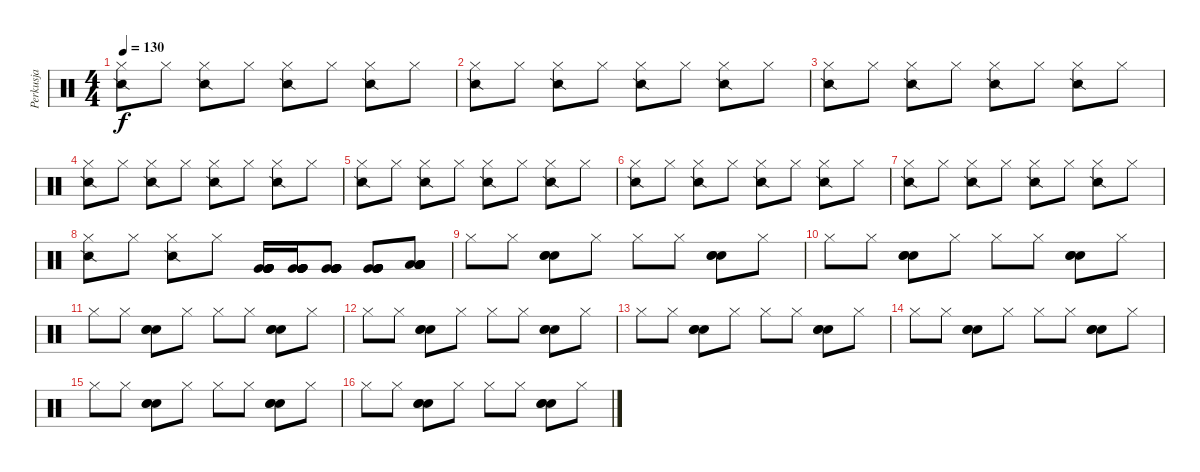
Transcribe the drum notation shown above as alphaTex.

\track ("Perkusja" "Perkusja") {instrument percussion}
\staff {score}
\articulation defaults
\ts (4 4)
\tempo 130
\clef neutral
\ks c
("Hi-Hat (closed)" "Snare (side stick) 2").8{dy f} "Hi-Hat (closed)".8 ("Hi-Hat (closed)" "Snare (side stick) 2").8 "Hi-Hat (closed)".8 ("Hi-Hat (closed)" "Snare (side stick) 2").8 "Hi-Hat (closed)".8 ("Hi-Hat (closed)" "Snare (side stick) 2").8 "Hi-Hat (closed)".8 |
("Hi-Hat (closed)" "Snare (side stick) 2").8 "Hi-Hat (closed)".8 ("Hi-Hat (closed)" "Snare (side stick) 2").8 "Hi-Hat (closed)".8 ("Hi-Hat (closed)" "Snare (side stick) 2").8 "Hi-Hat (closed)".8 ("Hi-Hat (closed)" "Snare (side stick) 2").8 "Hi-Hat (closed)".8 |
("Hi-Hat (closed)" "Snare (side stick) 2").8 "Hi-Hat (closed)".8 ("Hi-Hat (closed)" "Snare (side stick) 2").8 "Hi-Hat (closed)".8 ("Hi-Hat (closed)" "Snare (side stick) 2").8 "Hi-Hat (closed)".8 ("Hi-Hat (closed)" "Snare (side stick) 2").8 "Hi-Hat (closed)".8 |
("Hi-Hat (closed)" "Snare (side stick) 2").8 "Hi-Hat (closed)".8 ("Hi-Hat (closed)" "Snare (side stick) 2").8 "Hi-Hat (closed)".8 ("Hi-Hat (closed)" "Snare (side stick) 2").8 "Hi-Hat (closed)".8 ("Hi-Hat (closed)" "Snare (side stick) 2").8 "Hi-Hat (closed)".8 |
("Hi-Hat (closed)" "Snare (side stick) 2").8 "Hi-Hat (closed)".8 ("Hi-Hat (closed)" "Snare (side stick) 2").8 "Hi-Hat (closed)".8 ("Hi-Hat (closed)" "Snare (side stick) 2").8 "Hi-Hat (closed)".8 ("Hi-Hat (closed)" "Snare (side stick) 2").8 "Hi-Hat (closed)".8 |
("Hi-Hat (closed)" "Snare (side stick) 2").8 "Hi-Hat (closed)".8 ("Hi-Hat (closed)" "Snare (side stick) 2").8 "Hi-Hat (closed)".8 ("Hi-Hat (closed)" "Snare (side stick) 2").8 "Hi-Hat (closed)".8 ("Hi-Hat (closed)" "Snare (side stick) 2").8 "Hi-Hat (closed)".8 |
("Hi-Hat (closed)" "Snare (side stick) 2").8 "Hi-Hat (closed)".8 ("Hi-Hat (closed)" "Snare (side stick) 2").8 "Hi-Hat (closed)".8 ("Hi-Hat (closed)" "Snare (side stick) 2").8 "Hi-Hat (closed)".8 ("Hi-Hat (closed)" "Snare (side stick) 2").8 "Hi-Hat (closed)".8 |
("Hi-Hat (closed)" "Snare (side stick) 2").8 "Hi-Hat (closed)".8 ("Hi-Hat (closed)" "Snare (side stick) 2").8 "Hi-Hat (closed)".8 ("Very Low Tom (hit)" "Very Low Tom (hit)" "Very Low Tom (hit)" "Very Low Tom (hit)" "Very Low Tom (hit)" "Very Low Tom (hit)").16 ("Very Low Tom (hit)" "Very Low Tom (hit)" "Very Low Tom (hit)" "Very Low Tom (hit)" "Very Low Tom (hit)" "Very Low Tom (hit)").16 ("Very Low Tom (hit)" "Very Low Tom (hit)" "Very Low Tom (hit)" "Very Low Tom (hit)" "Very Low Tom (hit)" "Very Low Tom (hit)").8 ("Very Low Tom (hit)" "Very Low Tom (hit)" "Very Low Tom (hit)" "Very Low Tom (hit)" "Very Low Tom (hit)" "Very Low Tom (hit)").8 ("Low Floor Tom (hit)" "Low Floor Tom (hit)" "Low Floor Tom (hit)" "Low Floor Tom (hit)" "Low Floor Tom (hit)" "Low Floor Tom (hit)").8 |
"Hi-Hat (closed)".8 "Hi-Hat (closed)".8 ("Electric Snare (hit)" "Electric Snare (hit)" "Electric Snare (hit)").8 "Hi-Hat (closed)".8 "Hi-Hat (closed)".8 "Hi-Hat (closed)".8 ("Electric Snare (hit)" "Electric Snare (hit)" "Electric Snare (hit)").8 "Hi-Hat (closed)".8 |
"Hi-Hat (closed)".8 "Hi-Hat (closed)".8 ("Electric Snare (hit)" "Electric Snare (hit)" "Electric Snare (hit)").8 "Hi-Hat (closed)".8 "Hi-Hat (closed)".8 "Hi-Hat (closed)".8 ("Electric Snare (hit)" "Electric Snare (hit)" "Electric Snare (hit)").8 "Hi-Hat (closed)".8 |
"Hi-Hat (closed)".8 "Hi-Hat (closed)".8 ("Electric Snare (hit)" "Electric Snare (hit)" "Electric Snare (hit)").8 "Hi-Hat (closed)".8 "Hi-Hat (closed)".8 "Hi-Hat (closed)".8 ("Electric Snare (hit)" "Electric Snare (hit)" "Electric Snare (hit)").8 "Hi-Hat (closed)".8 |
"Hi-Hat (closed)".8 "Hi-Hat (closed)".8 ("Electric Snare (hit)" "Electric Snare (hit)" "Electric Snare (hit)").8 "Hi-Hat (closed)".8 "Hi-Hat (closed)".8 "Hi-Hat (closed)".8 ("Electric Snare (hit)" "Electric Snare (hit)" "Electric Snare (hit)").8 "Hi-Hat (closed)".8 |
"Hi-Hat (closed)".8 "Hi-Hat (closed)".8 ("Electric Snare (hit)" "Electric Snare (hit)" "Electric Snare (hit)").8 "Hi-Hat (closed)".8 "Hi-Hat (closed)".8 "Hi-Hat (closed)".8 ("Electric Snare (hit)" "Electric Snare (hit)" "Electric Snare (hit)").8 "Hi-Hat (closed)".8 |
"Hi-Hat (closed)".8 "Hi-Hat (closed)".8 ("Electric Snare (hit)" "Electric Snare (hit)" "Electric Snare (hit)").8 "Hi-Hat (closed)".8 "Hi-Hat (closed)".8 "Hi-Hat (closed)".8 ("Electric Snare (hit)" "Electric Snare (hit)" "Electric Snare (hit)").8 "Hi-Hat (closed)".8 |
"Hi-Hat (closed)".8 "Hi-Hat (closed)".8 ("Electric Snare (hit)" "Electric Snare (hit)" "Electric Snare (hit)").8 "Hi-Hat (closed)".8 "Hi-Hat (closed)".8 "Hi-Hat (closed)".8 ("Electric Snare (hit)" "Electric Snare (hit)" "Electric Snare (hit)").8 "Hi-Hat (closed)".8 |
"Hi-Hat (closed)".8 "Hi-Hat (closed)".8 ("Electric Snare (hit)" "Electric Snare (hit)" "Electric Snare (hit)").8 "Hi-Hat (closed)".8 "Hi-Hat (closed)".8 "Hi-Hat (closed)".8 ("Electric Snare (hit)" "Electric Snare (hit)" "Electric Snare (hit)").8 "Hi-Hat (closed)".8
